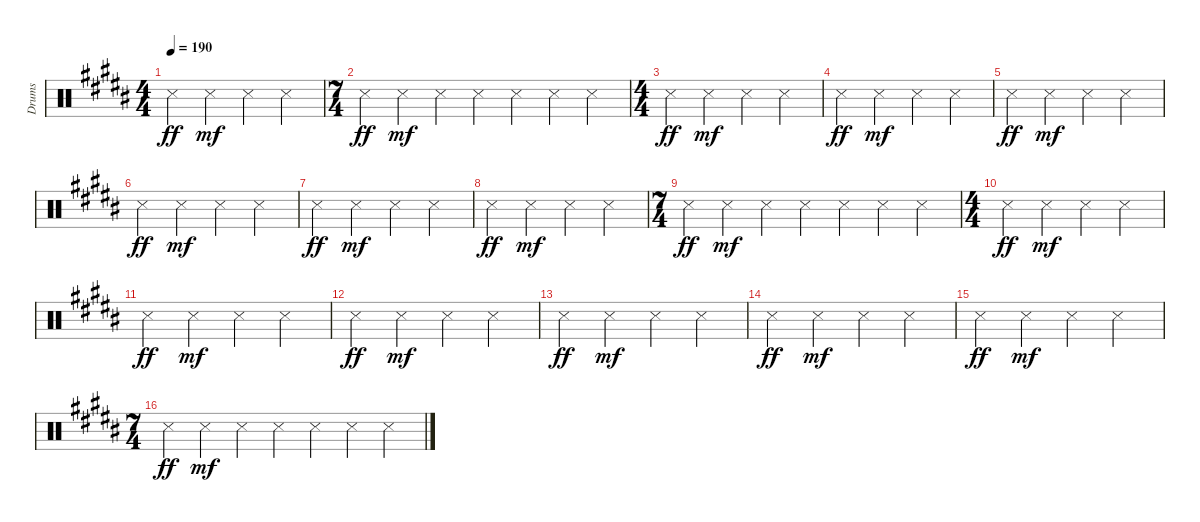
\bracketExtendMode groupsimilarinstruments
\otherSystemsTrackNameOrientation horizontal
\track ("Drumkit" "Drums") {mute instrument percussion}
\staff {score}
\articulation defaults
\ts (4 4)
\tempo 190
\clef neutral
\scale
0.218391
\ks b "Snare (side stick) 3"{acc forcenatural}.4{dy ff} "Snare (side stick) 3"{acc forcenatural}.4{dy mf} "Snare (side stick) 3"{acc forcenatural}.4 "Snare (side stick) 3"{acc forcenatural}.4
|
\ts (7 4)
\scale
0.390805 "Snare (side stick) 3"{acc forcenatural}.4{dy ff} "Snare (side stick) 3"{acc forcenatural}.4{dy mf} "Snare (side stick) 3"{acc forcenatural}.4 "Snare (side stick) 3"{acc forcenatural}.4 "Snare (side stick) 3"{acc forcenatural}.4 "Snare (side stick) 3"{acc forcenatural}.4 "Snare (side stick) 3"{acc forcenatural}.4 |
\ts (4 4)
\scale
0.390805 "Snare (side stick) 3"{acc forcenatural}.4{dy ff} "Snare (side stick) 3"{acc forcenatural}.4{dy mf} "Snare (side stick) 3"{acc forcenatural}.4 "Snare (side stick) 3"{acc forcenatural}.4 |
\scale
0.333333 "Snare (side stick) 3"{acc forcenatural}.4{dy ff} "Snare (side stick) 3"{acc forcenatural}.4{dy mf} "Snare (side stick) 3"{acc forcenatural}.4 "Snare (side stick) 3"{acc forcenatural}.4 |
\scale
0.333333 "Snare (side stick) 3"{acc forcenatural}.4{dy ff} "Snare (side stick) 3"{acc forcenatural}.4{dy mf} "Snare (side stick) 3"{acc forcenatural}.4 "Snare (side stick) 3"{acc forcenatural}.4 |
\scale
0.333333 "Snare (side stick) 3"{acc forcenatural}.4{dy ff} "Snare (side stick) 3"{acc forcenatural}.4{dy mf} "Snare (side stick) 3"{acc forcenatural}.4 "Snare (side stick) 3"{acc forcenatural}.4 |
\scale
0.263889 "Snare (side stick) 3"{acc forcenatural}.4{dy ff} "Snare (side stick) 3"{acc forcenatural}.4{dy mf} "Snare (side stick) 3"{acc forcenatural}.4 "Snare (side stick) 3"{acc forcenatural}.4 |
\scale
0.263889 "Snare (side stick) 3"{acc forcenatural}.4{dy ff} "Snare (side stick) 3"{acc forcenatural}.4{dy mf} "Snare (side stick) 3"{acc forcenatural}.4 "Snare (side stick) 3"{acc forcenatural}.4 |
\ts (7 4)
\scale
0.472222 "Snare (side stick) 3"{acc forcenatural}.4{dy ff} "Snare (side stick) 3"{acc forcenatural}.4{dy mf} "Snare (side stick) 3"{acc forcenatural}.4 "Snare (side stick) 3"{acc forcenatural}.4 "Snare (side stick) 3"{acc forcenatural}.4 "Snare (side stick) 3"{acc forcenatural}.4 "Snare (side stick) 3"{acc forcenatural}.4 |
\ts (4 4)
\scale
0.472222 "Snare (side stick) 3"{acc forcenatural}.4{dy ff} "Snare (side stick) 3"{acc forcenatural}.4{dy mf} "Snare (side stick) 3"{acc forcenatural}.4 "Snare (side stick) 3"{acc forcenatural}.4 |
\scale
0.263889 "Snare (side stick) 3"{acc forcenatural}.4{dy ff} "Snare (side stick) 3"{acc forcenatural}.4{dy mf} "Snare (side stick) 3"{acc forcenatural}.4 "Snare (side stick) 3"{acc forcenatural}.4 |
\scale
0.263889 "Snare (side stick) 3"{acc forcenatural}.4{dy ff} "Snare (side stick) 3"{acc forcenatural}.4{dy mf} "Snare (side stick) 3"{acc forcenatural}.4 "Snare (side stick) 3"{acc forcenatural}.4 |
\scale
0.333333 "Snare (side stick) 3"{acc forcenatural}.4{dy ff} "Snare (side stick) 3"{acc forcenatural}.4{dy mf} "Snare (side stick) 3"{acc forcenatural}.4 "Snare (side stick) 3"{acc forcenatural}.4 |
\scale
0.333333 "Snare (side stick) 3"{acc forcenatural}.4{dy ff} "Snare (side stick) 3"{acc forcenatural}.4{dy mf} "Snare (side stick) 3"{acc forcenatural}.4 "Snare (side stick) 3"{acc forcenatural}.4 |
\scale
0.333333 "Snare (side stick) 3"{acc forcenatural}.4{dy ff} "Snare (side stick) 3"{acc forcenatural}.4{dy mf} "Snare (side stick) 3"{acc forcenatural}.4 "Snare (side stick) 3"{acc forcenatural}.4 |
\ts (7 4)
\scale
0.390805 "Snare (side stick) 3"{acc forcenatural}.4{dy ff} "Snare (side stick) 3"{acc forcenatural}.4{dy mf} "Snare (side stick) 3"{acc forcenatural}.4 "Snare (side stick) 3"{acc forcenatural}.4 "Snare (side stick) 3"{acc forcenatural}.4 "Snare (side stick) 3"{acc forcenatural}.4 "Snare (side stick) 3"{acc forcenatural}.4
